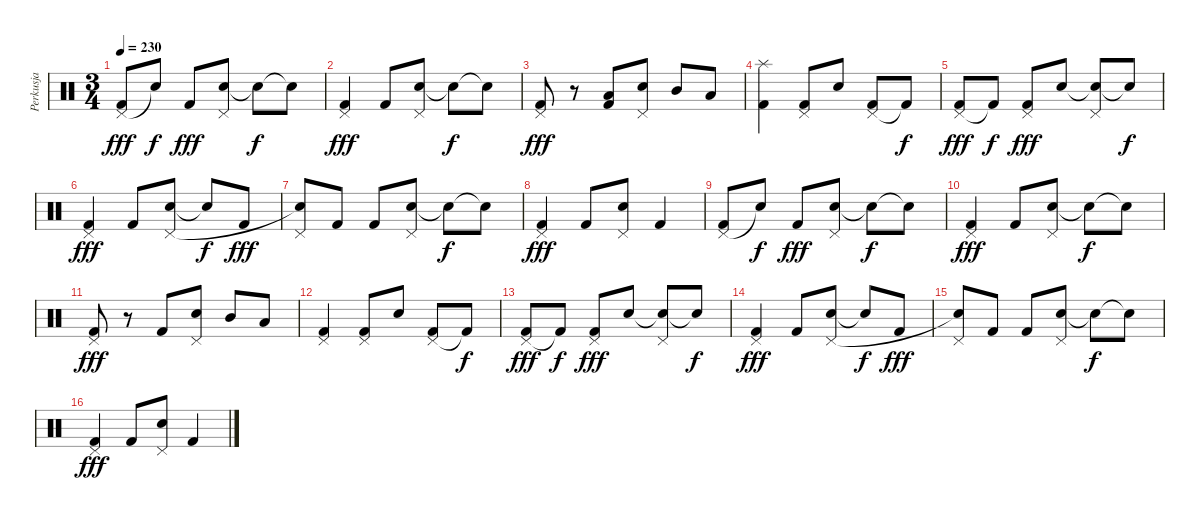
\track ("Perkusja" "Perkusja") {instrument percussion}
\staff {score}
\articulation defaults
\ts (3 4)
\tempo 230
\clef neutral
\ks c
("Pedal Hi-Hat (hit)" "Kick (hit) 2").8{dy fff} "Snare (hit)"{t}.8{dy f} "Kick (hit) 2".8{dy fff} ("Snare (hit) 2" "Pedal Hi-Hat (hit)").8 "Snare (hit)"{t}.8{dy f} "Snare (hit)"{t}.8 |
("Pedal Hi-Hat (hit)" "Kick (hit) 2").4{dy fff} "Kick (hit) 2".8 ("Snare (hit) 2" "Pedal Hi-Hat (hit)").8 "Snare (hit)"{t}.8{dy f} "Snare (hit)"{t}.8 |
("Pedal Hi-Hat (hit)" "Kick (hit) 2").8{dy fff} r.8 ("Low Tom (hit)" "Kick (hit) 2").8 ("Snare (hit) 2" "Pedal Hi-Hat (hit)").8 "Mid Tom (hit)".8 "Low Tom (hit)".8 |
("Splash (hit)" "Kick (hit) 2").4 ("Pedal Hi-Hat (hit)" "Kick (hit) 2").8 "Snare (hit) 2".8 ("Pedal Hi-Hat (hit)" "Kick (hit) 2").8 "Kick (hit) 2"{t}.8{dy f} |
("Pedal Hi-Hat (hit)" "Kick (hit) 2").8{dy fff} "Kick (hit) 2"{t}.8{dy f} ("Pedal Hi-Hat (hit)" "Kick (hit) 2").8{dy fff} "Snare (hit) 2".8 ("Snare (hit)"{t} "Pedal Hi-Hat (hit)").8 "Snare (hit)"{t}.8{dy f} |
("Pedal Hi-Hat (hit)" "Kick (hit) 2").4{dy fff} "Kick (hit) 2".8 ("Snare (hit) 2" "Pedal Hi-Hat (hit)").8 "Snare (hit)"{t}.8{dy f} "Kick (hit) 2".8{dy fff} |
("Pedal Hi-Hat (hit)" "Snare (hit)"{t}).8 "Kick (hit) 2".8 "Kick (hit) 2".8 ("Snare (hit) 2" "Pedal Hi-Hat (hit)").8 "Snare (hit)"{t}.8{dy f} "Snare (hit)"{t}.8 |
("Pedal Hi-Hat (hit)" "Kick (hit) 2").4{dy fff} "Kick (hit) 2".8 ("Snare (hit) 2" "Pedal Hi-Hat (hit)").8 "Kick (hit) 2".4 |
("Pedal Hi-Hat (hit)" "Kick (hit) 2").8 "Snare (hit)"{t}.8{dy f} "Kick (hit) 2".8{dy fff} ("Snare (hit) 2" "Pedal Hi-Hat (hit)").8 "Snare (hit)"{t}.8{dy f} "Snare (hit)"{t}.8 |
("Pedal Hi-Hat (hit)" "Kick (hit) 2").4{dy fff} "Kick (hit) 2".8 ("Snare (hit) 2" "Pedal Hi-Hat (hit)").8 "Snare (hit)"{t}.8{dy f} "Snare (hit)"{t}.8 |
("Pedal Hi-Hat (hit)" "Kick (hit) 2").8{dy fff} r.8 "Kick (hit) 2".8 ("Snare (hit) 2" "Pedal Hi-Hat (hit)").8 "Mid Tom (hit)".8 "Low Tom (hit)".8 |
("Pedal Hi-Hat (hit)" "Kick (hit) 2").4 ("Pedal Hi-Hat (hit)" "Kick (hit) 2").8 "Snare (hit) 2".8 ("Pedal Hi-Hat (hit)" "Kick (hit) 2").8 "Kick (hit) 2"{t}.8{dy f} |
("Pedal Hi-Hat (hit)" "Kick (hit) 2").8{dy fff} "Kick (hit) 2"{t}.8{dy f} ("Pedal Hi-Hat (hit)" "Kick (hit) 2").8{dy fff} "Snare (hit) 2".8 ("Snare (hit)"{t} "Pedal Hi-Hat (hit)").8 "Snare (hit)"{t}.8{dy f} |
("Pedal Hi-Hat (hit)" "Kick (hit) 2").4{dy fff} "Kick (hit) 2".8 ("Snare (hit) 2" "Pedal Hi-Hat (hit)").8 "Snare (hit)"{t}.8{dy f} "Kick (hit) 2".8{dy fff} |
("Pedal Hi-Hat (hit)" "Snare (hit)"{t}).8 "Kick (hit) 2".8 "Kick (hit) 2".8 ("Snare (hit) 2" "Pedal Hi-Hat (hit)").8 "Snare (hit)"{t}.8{dy f} "Snare (hit)"{t}.8 |
("Pedal Hi-Hat (hit)" "Kick (hit) 2").4{dy fff} "Kick (hit) 2".8 ("Snare (hit) 2" "Pedal Hi-Hat (hit)").8 "Kick (hit) 2".4
